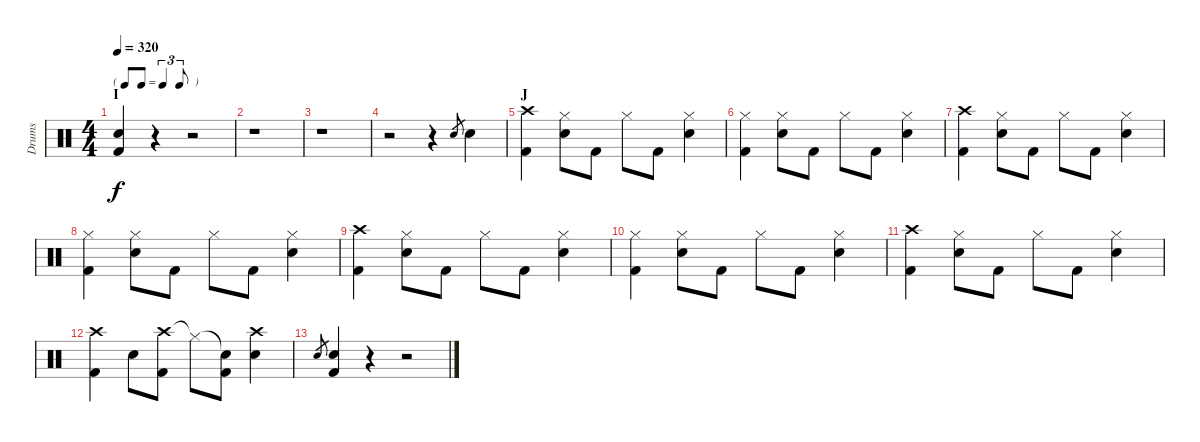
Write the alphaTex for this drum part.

\track ("Drums" "Drums") {instrument percussion}
\staff {score}
\articulation defaults
\ts (4 4)
\tf triplet8th
\section ("" "I")
\tempo 320
\clef neutral
\ks c
("Electric Snare (hit)" "Kick (hit) 2").4{dy f} r.4 r.2 |
r.1 |
r.1 |
r.2 r.4 "Electric Snare (hit)".8{gr} "Electric Snare (hit)".4 |
\section ("" "J")
("Crash high (hit)" "Kick (hit) 2").4 ("Hi-Hat (closed)" "Electric Snare (hit)").8 "Kick (hit) 2".8 "Hi-Hat (closed)".8 "Kick (hit) 2".8 ("Hi-Hat (closed)" "Electric Snare (hit)").4 |
("Hi-Hat (closed)" "Kick (hit) 2").4 ("Hi-Hat (closed)" "Electric Snare (hit)").8 "Kick (hit) 2".8 "Hi-Hat (closed)".8 "Kick (hit) 2".8 ("Hi-Hat (closed)" "Electric Snare (hit)").4 |
("Crash high (hit)" "Kick (hit) 2").4 ("Hi-Hat (closed)" "Electric Snare (hit)").8 "Kick (hit) 2".8 "Hi-Hat (closed)".8 "Kick (hit) 2".8 ("Hi-Hat (closed)" "Electric Snare (hit)").4 |
("Hi-Hat (closed)" "Kick (hit) 2").4 ("Hi-Hat (closed)" "Electric Snare (hit)").8 "Kick (hit) 2".8 "Hi-Hat (closed)".8 "Kick (hit) 2".8 ("Hi-Hat (closed)" "Electric Snare (hit)").4 |
("Crash high (hit)" "Kick (hit) 2").4 ("Hi-Hat (closed)" "Electric Snare (hit)").8 "Kick (hit) 2".8 "Hi-Hat (closed)".8 "Kick (hit) 2".8 ("Hi-Hat (closed)" "Electric Snare (hit)").4 |
("Hi-Hat (closed)" "Kick (hit) 2").4 ("Hi-Hat (closed)" "Electric Snare (hit)").8 "Kick (hit) 2".8 "Hi-Hat (closed)".8 "Kick (hit) 2".8 ("Hi-Hat (closed)" "Electric Snare (hit)").4 |
("Crash high (hit)" "Kick (hit) 2").4 ("Hi-Hat (closed)" "Electric Snare (hit)").8 "Kick (hit) 2".8 "Hi-Hat (closed)".8 "Kick (hit) 2".8 ("Hi-Hat (closed)" "Electric Snare (hit)").4 |
("Crash high (hit)" "Kick (hit) 2").4 "Electric Snare (hit)".8 ("Crash high (hit)" "Kick (hit) 2").8 "Hi-Hat (closed)"{t}.8 ("Snare (hit)"{t} "Kick (hit) 2").8 ("Crash high (hit)" "Electric Snare (hit)").4 |
"Electric Snare (hit)".8{gr} ("Electric Snare (hit)" "Kick (hit) 2").4 r.4 r.2
